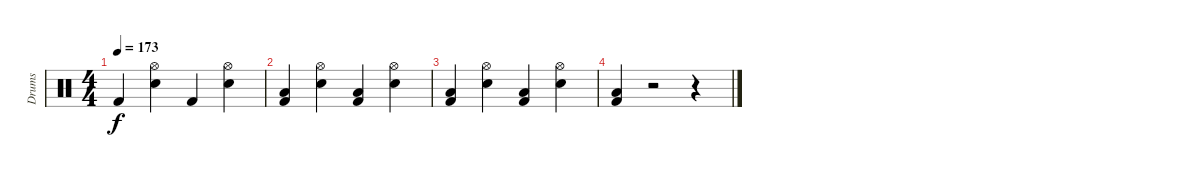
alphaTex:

\track ("Drums" "Drums") {instrument percussion}
\staff {score}
\articulation defaults
\ts (4 4)
\tempo 173
\clef neutral
\ks c "Kick (hit) 2".4{dy f}
("Electric Snare (hit)" "Hi-Hat (open)").4 "Kick (hit) 2".4 ("Electric Snare (hit)" "Hi-Hat (open)").4 |
("Kick (hit) 2" "Low Floor Tom (hit)").4 ("Electric Snare (hit)" "Hi-Hat (open)").4 ("Kick (hit) 2" "Low Floor Tom (hit)").4 ("Electric Snare (hit)" "Hi-Hat (open)").4 |
("Kick (hit) 2" "Low Floor Tom (hit)").4 ("Electric Snare (hit)" "Hi-Hat (open)").4 ("Kick (hit) 2" "Low Floor Tom (hit)").4 ("Electric Snare (hit)" "Hi-Hat (open)").4 |
("Kick (hit) 2" "Low Floor Tom (hit)").4 r.2 r.4
